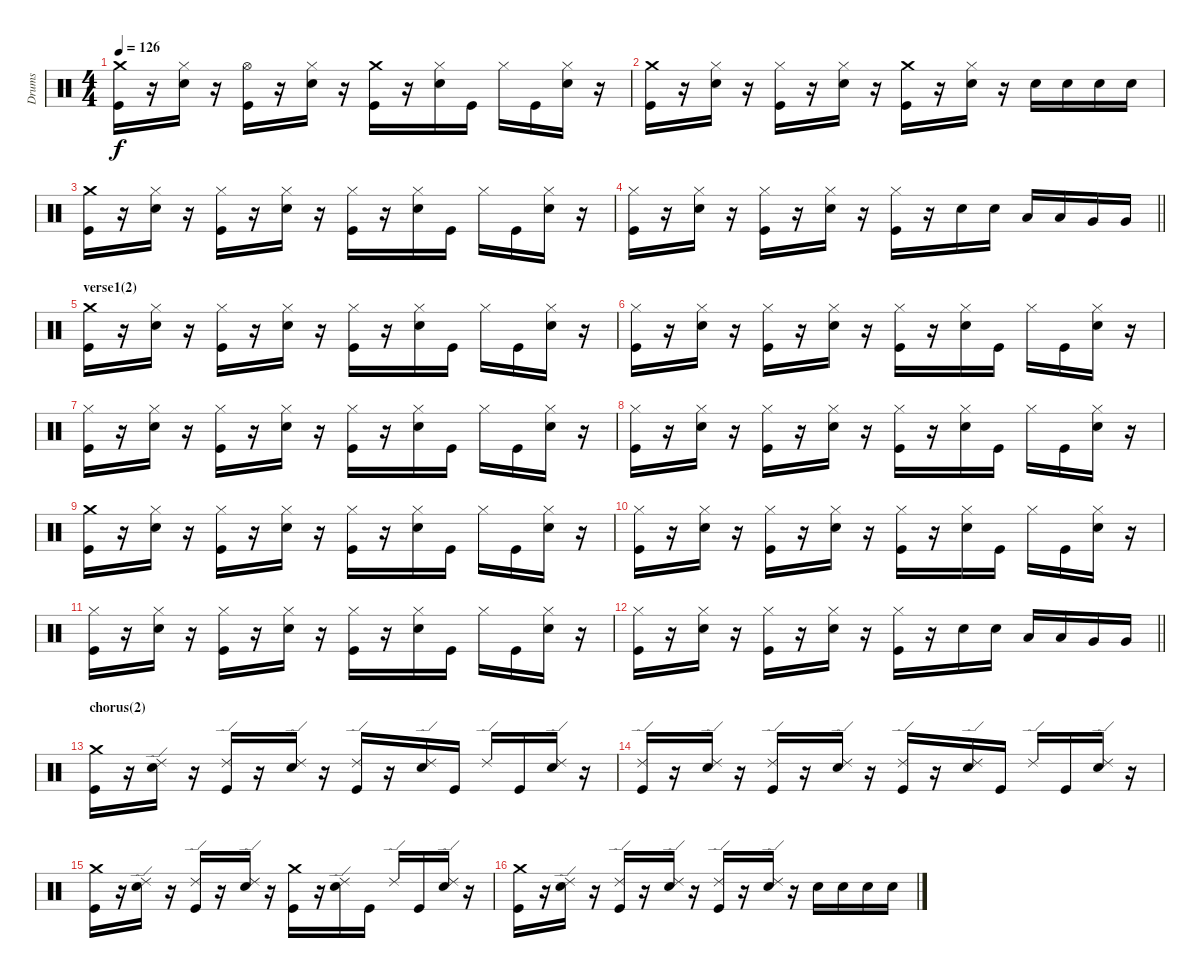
\track ("Drums" "Drums") {instrument percussion}
\staff {score}
\articulation defaults
\ts (4 4)
\tempo 126
\clef neutral
\ks c
("Crash medium (hit)" "Kick (hit)").16{dy f} r.16 ("Hi-Hat (closed)" "Snare (hit) 2").16 r.16 ("Hi-Hat (open)" "Kick (hit)").16 r.16 ("Hi-Hat (closed)" "Snare (hit) 2").16 r.16 ("Crash medium (hit)" "Kick (hit)").16 r.16 ("Hi-Hat (closed)" "Snare (hit) 2").16 "Kick (hit)".16 "Hi-Hat (closed)".16 "Kick (hit)".16 ("Hi-Hat (closed)" "Snare (hit) 2").16 r.16 |
("Crash medium (hit)" "Kick (hit)").16 r.16 ("Hi-Hat (closed)" "Snare (hit) 2").16 r.16 ("Hi-Hat (closed)" "Kick (hit)").16 r.16 ("Hi-Hat (closed)" "Snare (hit) 2").16 r.16 ("Crash medium (hit)" "Kick (hit)").16 r.16 ("Hi-Hat (closed)" "Snare (hit) 2").16 r.16 "Snare (hit) 2".16 "Snare (hit) 2".16 "Snare (hit) 2".16 "Snare (hit) 2".16 |
("Crash medium (hit)" "Kick (hit)").16 r.16 ("Hi-Hat (closed)" "Snare (hit) 2").16 r.16 ("Hi-Hat (closed)" "Kick (hit)").16 r.16 ("Hi-Hat (closed)" "Snare (hit) 2").16 r.16 ("Hi-Hat (closed)" "Kick (hit)").16 r.16 ("Hi-Hat (closed)" "Snare (hit) 2").16 "Kick (hit)".16 "Hi-Hat (closed)".16 "Kick (hit)".16 ("Hi-Hat (closed)" "Snare (hit) 2").16 r.16 |
\barLineRight lightlight
("Hi-Hat (closed)" "Kick (hit)").16 r.16 ("Hi-Hat (closed)" "Snare (hit) 2").16 r.16 ("Hi-Hat (closed)" "Kick (hit)").16 r.16 ("Hi-Hat (closed)" "Snare (hit) 2").16 r.16 ("Hi-Hat (closed)" "Kick (hit)").16 r.16 "Snare (hit) 2".16 "Snare (hit) 2".16 "Low Tom (hit)".16 "Low Tom (hit)".16 "Very Low Tom (hit)".16 "Very Low Tom (hit)".16 |
\section ("" "verse1(2)")
("Crash medium (hit)" "Kick (hit)").16 r.16 ("Hi-Hat (closed)" "Snare (hit) 2").16 r.16 ("Hi-Hat (closed)" "Kick (hit)").16 r.16 ("Hi-Hat (closed)" "Snare (hit) 2").16 r.16 ("Hi-Hat (closed)" "Kick (hit)").16 r.16 ("Hi-Hat (closed)" "Snare (hit) 2").16 "Kick (hit)".16 "Hi-Hat (closed)".16 "Kick (hit)".16 ("Hi-Hat (closed)" "Snare (hit) 2").16 r.16 |
("Hi-Hat (closed)" "Kick (hit)").16 r.16 ("Hi-Hat (closed)" "Snare (hit) 2").16 r.16 ("Hi-Hat (closed)" "Kick (hit)").16 r.16 ("Hi-Hat (closed)" "Snare (hit) 2").16 r.16 ("Hi-Hat (closed)" "Kick (hit)").16 r.16 ("Hi-Hat (closed)" "Snare (hit) 2").16 "Kick (hit)".16 "Hi-Hat (closed)".16 "Kick (hit)".16 ("Hi-Hat (closed)" "Snare (hit) 2").16 r.16 |
("Hi-Hat (closed)" "Kick (hit)").16 r.16 ("Hi-Hat (closed)" "Snare (hit) 2").16 r.16 ("Hi-Hat (closed)" "Kick (hit)").16 r.16 ("Hi-Hat (closed)" "Snare (hit) 2").16 r.16 ("Hi-Hat (closed)" "Kick (hit)").16 r.16 ("Hi-Hat (closed)" "Snare (hit) 2").16 "Kick (hit)".16 "Hi-Hat (closed)".16 "Kick (hit)".16 ("Hi-Hat (closed)" "Snare (hit) 2").16 r.16 |
("Hi-Hat (closed)" "Kick (hit)").16 r.16 ("Hi-Hat (closed)" "Snare (hit) 2").16 r.16 ("Hi-Hat (closed)" "Kick (hit)").16 r.16 ("Hi-Hat (closed)" "Snare (hit) 2").16 r.16 ("Hi-Hat (closed)" "Kick (hit)").16 r.16 ("Hi-Hat (closed)" "Snare (hit) 2").16 "Kick (hit)".16 "Hi-Hat (closed)".16 "Kick (hit)".16 ("Hi-Hat (closed)" "Snare (hit) 2").16 r.16 |
("Crash medium (hit)" "Kick (hit)").16 r.16 ("Hi-Hat (closed)" "Snare (hit) 2").16 r.16 ("Hi-Hat (closed)" "Kick (hit)").16 r.16 ("Hi-Hat (closed)" "Snare (hit) 2").16 r.16 ("Hi-Hat (closed)" "Kick (hit)").16 r.16 ("Hi-Hat (closed)" "Snare (hit) 2").16 "Kick (hit)".16 "Hi-Hat (closed)".16 "Kick (hit)".16 ("Hi-Hat (closed)" "Snare (hit) 2").16 r.16 |
("Hi-Hat (closed)" "Kick (hit)").16 r.16 ("Hi-Hat (closed)" "Snare (hit) 2").16 r.16 ("Hi-Hat (closed)" "Kick (hit)").16 r.16 ("Hi-Hat (closed)" "Snare (hit) 2").16 r.16 ("Hi-Hat (closed)" "Kick (hit)").16 r.16 ("Hi-Hat (closed)" "Snare (hit) 2").16 "Kick (hit)".16 "Hi-Hat (closed)".16 "Kick (hit)".16 ("Hi-Hat (closed)" "Snare (hit) 2").16 r.16 |
("Hi-Hat (closed)" "Kick (hit)").16 r.16 ("Hi-Hat (closed)" "Snare (hit) 2").16 r.16 ("Hi-Hat (closed)" "Kick (hit)").16 r.16 ("Hi-Hat (closed)" "Snare (hit) 2").16 r.16 ("Hi-Hat (closed)" "Kick (hit)").16 r.16 ("Hi-Hat (closed)" "Snare (hit) 2").16 "Kick (hit)".16 "Hi-Hat (closed)".16 "Kick (hit)".16 ("Hi-Hat (closed)" "Snare (hit) 2").16 r.16 |
\barLineRight lightlight
("Hi-Hat (closed)" "Kick (hit)").16 r.16 ("Hi-Hat (closed)" "Snare (hit) 2").16 r.16 ("Hi-Hat (closed)" "Kick (hit)").16 r.16 ("Hi-Hat (closed)" "Snare (hit) 2").16 r.16 ("Hi-Hat (closed)" "Kick (hit)").16 r.16 "Snare (hit) 2".16 "Snare (hit) 2".16 "Low Tom (hit)".16 "Low Tom (hit)".16 "Very Low Tom (hit)".16 "Very Low Tom (hit)".16 |
\section ("" "chorus(2)")
("Crash medium (hit)" "Kick (hit)").16 r.16 ("Ride (edge) 2" "Snare (hit) 2").16 r.16 ("Ride (edge) 2" "Kick (hit)").16 r.16 ("Ride (edge) 2" "Snare (hit) 2").16 r.16 ("Ride (edge) 2" "Kick (hit)").16 r.16 ("Ride (edge) 2" "Snare (hit) 2").16 "Kick (hit)".16 "Ride (edge) 2".16 "Kick (hit)".16 ("Ride (edge) 2" "Snare (hit) 2").16 r.16 |
("Ride (edge) 2" "Kick (hit)").16 r.16 ("Ride (edge) 2" "Snare (hit) 2").16 r.16 ("Ride (edge) 2" "Kick (hit)").16 r.16 ("Ride (edge) 2" "Snare (hit) 2").16 r.16 ("Ride (edge) 2" "Kick (hit)").16 r.16 ("Ride (edge) 2" "Snare (hit) 2").16 "Kick (hit)".16 "Ride (edge) 2".16 "Kick (hit)".16 ("Ride (edge) 2" "Snare (hit) 2").16 r.16 |
("Crash medium (hit)" "Kick (hit)").16 r.16 ("Ride (edge) 2" "Snare (hit) 2").16 r.16 ("Ride (edge) 2" "Kick (hit)").16 r.16 ("Ride (edge) 2" "Snare (hit) 2").16 r.16 ("Crash medium (hit)" "Kick (hit)").16 r.16 ("Ride (edge) 2" "Snare (hit) 2").16 "Kick (hit)".16 "Ride (edge) 2".16 "Kick (hit)".16 ("Ride (edge) 2" "Snare (hit) 2").16 r.16 |
("Crash medium (hit)" "Kick (hit)").16 r.16 ("Ride (edge) 2" "Snare (hit) 2").16 r.16 ("Ride (edge) 2" "Kick (hit)").16 r.16 ("Ride (edge) 2" "Snare (hit) 2").16 r.16 ("Ride (edge) 2" "Kick (hit)").16 r.16 ("Ride (edge) 2" "Snare (hit) 2").16 r.16 "Snare (hit) 2".16 "Snare (hit) 2".16 "Snare (hit) 2".16 "Snare (hit) 2".16
